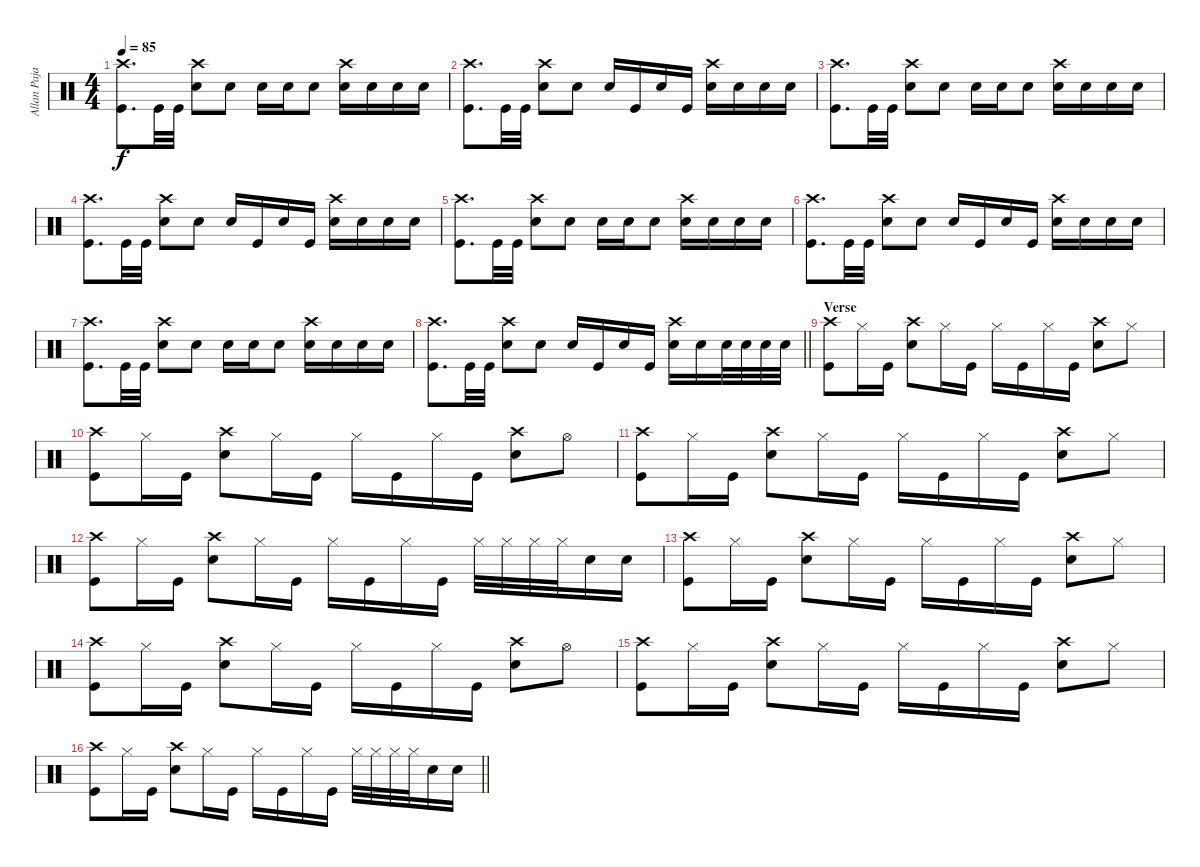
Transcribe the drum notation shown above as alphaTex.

\track ("Allan Pajarin (Drums)" "Allan Paja") {instrument percussion}
\staff {score}
\articulation defaults
\ts (4 4)
\tempo 85
\clef neutral
\ks c
("Crash high (hit)" "Kick (hit)").8{d dy f volume 13} "Kick (hit)".32 "Kick (hit)".32 ("Crash high (hit)" "Electric Snare (hit)").8 "Electric Snare (hit)".8 "Electric Snare (hit)".16 "Electric Snare (hit)".16 "Electric Snare (hit)".8 ("Electric Snare (hit)" "Crash high (hit)").16 "Electric Snare (hit)".16 "Electric Snare (hit)".16 "Electric Snare (hit)".16 |
("Crash high (hit)" "Kick (hit)").8{d} "Kick (hit)".32 "Kick (hit)".32 ("Crash high (hit)" "Electric Snare (hit)").8 "Electric Snare (hit)".8 "Electric Snare (hit)".16 "Kick (hit)".16 "Electric Snare (hit)".16 "Kick (hit)".16 ("Electric Snare (hit)" "Crash high (hit)").16 "Electric Snare (hit)".16 "Electric Snare (hit)".16 "Electric Snare (hit)".16 |
("Crash high (hit)" "Kick (hit)").8{d} "Kick (hit)".32 "Kick (hit)".32 ("Crash high (hit)" "Electric Snare (hit)").8 "Electric Snare (hit)".8 "Electric Snare (hit)".16 "Electric Snare (hit)".16 "Electric Snare (hit)".8 ("Electric Snare (hit)" "Crash high (hit)").16 "Electric Snare (hit)".16 "Electric Snare (hit)".16 "Electric Snare (hit)".16 |
("Crash high (hit)" "Kick (hit)").8{d} "Kick (hit)".32 "Kick (hit)".32 ("Crash high (hit)" "Electric Snare (hit)").8 "Electric Snare (hit)".8 "Electric Snare (hit)".16 "Kick (hit)".16 "Electric Snare (hit)".16 "Kick (hit)".16 ("Electric Snare (hit)" "Crash high (hit)").16 "Electric Snare (hit)".16 "Electric Snare (hit)".16 "Electric Snare (hit)".16 |
("Crash high (hit)" "Kick (hit)").8{d} "Kick (hit)".32 "Kick (hit)".32 ("Crash high (hit)" "Electric Snare (hit)").8 "Electric Snare (hit)".8 "Electric Snare (hit)".16 "Electric Snare (hit)".16 "Electric Snare (hit)".8 ("Electric Snare (hit)" "Crash high (hit)").16 "Electric Snare (hit)".16 "Electric Snare (hit)".16 "Electric Snare (hit)".16 |
("Crash high (hit)" "Kick (hit)").8{d} "Kick (hit)".32 "Kick (hit)".32 ("Crash high (hit)" "Electric Snare (hit)").8 "Electric Snare (hit)".8 "Electric Snare (hit)".16 "Kick (hit)".16 "Electric Snare (hit)".16 "Kick (hit)".16 ("Electric Snare (hit)" "Crash high (hit)").16 "Electric Snare (hit)".16 "Electric Snare (hit)".16 "Electric Snare (hit)".16 |
("Crash high (hit)" "Kick (hit)").8{d} "Kick (hit)".32 "Kick (hit)".32 ("Crash high (hit)" "Electric Snare (hit)").8 "Electric Snare (hit)".8 "Electric Snare (hit)".16 "Electric Snare (hit)".16 "Electric Snare (hit)".8 ("Electric Snare (hit)" "Crash high (hit)").16 "Electric Snare (hit)".16 "Electric Snare (hit)".16 "Electric Snare (hit)".16 |
\barLineRight lightlight
("Crash high (hit)" "Kick (hit)").8{d} "Kick (hit)".32 "Kick (hit)".32 ("Crash high (hit)" "Electric Snare (hit)").8 "Electric Snare (hit)".8 "Electric Snare (hit)".16 "Kick (hit)".16 "Electric Snare (hit)".16 "Kick (hit)".16 ("Electric Snare (hit)" "Crash high (hit)").16 "Electric Snare (hit)".16 "Electric Snare (hit)".32 "Electric Snare (hit)".32 "Electric Snare (hit)".32 "Electric Snare (hit)".32 |
\section ("" "Verse")
("Crash high (hit)" "Kick (hit)").8 "Hi-Hat (closed)".16 "Kick (hit)".16 ("Crash high (hit)" "Electric Snare (hit)").8 "Hi-Hat (closed)".16 "Kick (hit)".16 "Hi-Hat (closed)".16 "Kick (hit)".16 "Hi-Hat (closed)".16 "Kick (hit)".16 ("Crash high (hit)" "Electric Snare (hit)").8 "Hi-Hat (closed)".8 |
("Kick (hit)" "Crash high (hit)").8 "Hi-Hat (closed)".16 "Kick (hit)".16 ("Crash high (hit)" "Electric Snare (hit)").8 "Hi-Hat (closed)".16 "Kick (hit)".16 "Hi-Hat (closed)".16 "Kick (hit)".16 "Hi-Hat (closed)".16 "Kick (hit)".16 ("Crash high (hit)" "Electric Snare (hit)").8 "Hi-Hat (open)".8 |
("Crash high (hit)" "Kick (hit)").8 "Hi-Hat (closed)".16 "Kick (hit)".16 ("Crash high (hit)" "Electric Snare (hit)").8 "Hi-Hat (closed)".16 "Kick (hit)".16 "Hi-Hat (closed)".16 "Kick (hit)".16 "Hi-Hat (closed)".16 "Kick (hit)".16 ("Electric Snare (hit)" "Crash high (hit)").8 "Hi-Hat (closed)".8 |
("Crash high (hit)" "Kick (hit)").8 "Hi-Hat (closed)".16 "Kick (hit)".16 ("Crash high (hit)" "Electric Snare (hit)").8 "Hi-Hat (closed)".16 "Kick (hit)".16 "Hi-Hat (closed)".16 "Kick (hit)".16 "Hi-Hat (closed)".16 "Kick (hit)".16 "Hi-Hat (closed)".32 "Hi-Hat (closed)".32 "Hi-Hat (closed)".32 "Hi-Hat (closed)".32 "Electric Snare (hit)".16 "Electric Snare (hit)".16 |
("Crash high (hit)" "Kick (hit)").8 "Hi-Hat (closed)".16 "Kick (hit)".16 ("Electric Snare (hit)" "Crash high (hit)").8 "Hi-Hat (closed)".16 "Kick (hit)".16 "Hi-Hat (closed)".16 "Kick (hit)".16 "Hi-Hat (closed)".16 "Kick (hit)".16 ("Crash high (hit)" "Electric Snare (hit)").8 "Hi-Hat (closed)".8 |
("Crash high (hit)" "Kick (hit)").8 "Hi-Hat (closed)".16 "Kick (hit)".16 ("Crash high (hit)" "Electric Snare (hit)").8 "Hi-Hat (closed)".16 "Kick (hit)".16 "Hi-Hat (closed)".16 "Kick (hit)".16 "Hi-Hat (closed)".16 "Kick (hit)".16 ("Crash high (hit)" "Electric Snare (hit)").8 "Hi-Hat (open)".8 |
("Crash high (hit)" "Kick (hit)").8 "Hi-Hat (closed)".16 "Kick (hit)".16 ("Crash high (hit)" "Electric Snare (hit)").8 "Hi-Hat (closed)".16 "Kick (hit)".16 "Hi-Hat (closed)".16 "Kick (hit)".16 "Hi-Hat (closed)".16 "Kick (hit)".16 ("Crash high (hit)" "Electric Snare (hit)").8 "Hi-Hat (closed)".8 |
\barLineRight lightlight
("Crash high (hit)" "Kick (hit)").8 "Hi-Hat (closed)".16 "Kick (hit)".16 ("Crash high (hit)" "Electric Snare (hit)").8 "Hi-Hat (closed)".16 "Kick (hit)".16 "Hi-Hat (closed)".16 "Kick (hit)".16 "Hi-Hat (closed)".16 "Kick (hit)".16 "Hi-Hat (closed)".32 "Hi-Hat (closed)".32 "Hi-Hat (closed)".32 "Hi-Hat (closed)".32 "Electric Snare (hit)".16 "Electric Snare (hit)".16
